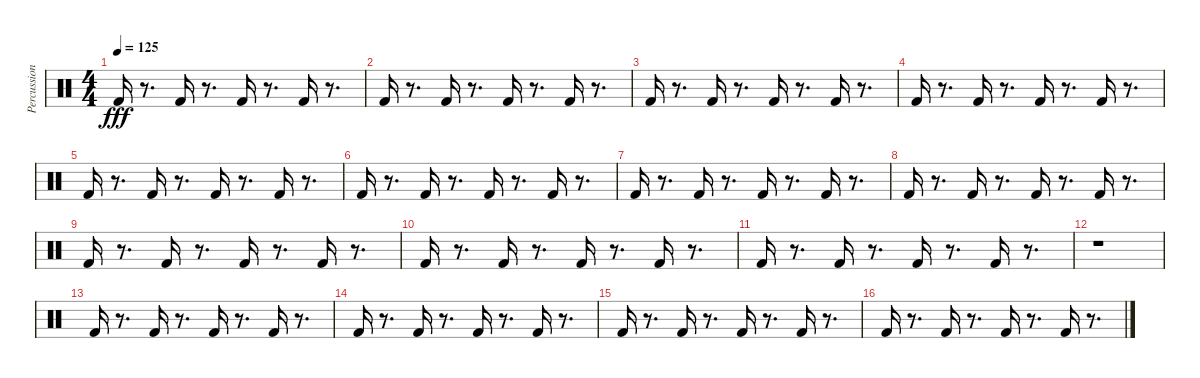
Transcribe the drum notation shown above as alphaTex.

\track ("Percussion" "Percussion") {instrument percussion}
\staff {score}
\articulation defaults
\ts (4 4)
\tempo 125
\clef neutral
\ks c "Kick (hit) 2".16{dy fff}
r.8{d} "Kick (hit) 2".16 r.8{d} "Kick (hit) 2".16 r.8{d} "Kick (hit) 2".16 r.8{d} |
"Kick (hit) 2".16 r.8{d} "Kick (hit) 2".16 r.8{d} "Kick (hit) 2".16 r.8{d} "Kick (hit) 2".16 r.8{d} |
"Kick (hit) 2".16 r.8{d} "Kick (hit) 2".16 r.8{d} "Kick (hit) 2".16 r.8{d} "Kick (hit) 2".16 r.8{d} |
"Kick (hit) 2".16 r.8{d} "Kick (hit) 2".16 r.8{d} "Kick (hit) 2".16 r.8{d} "Kick (hit) 2".16 r.8{d} |
"Kick (hit) 2".16 r.8{d} "Kick (hit) 2".16 r.8{d} "Kick (hit) 2".16 r.8{d} "Kick (hit) 2".16 r.8{d} |
"Kick (hit) 2".16 r.8{d} "Kick (hit) 2".16 r.8{d} "Kick (hit) 2".16 r.8{d} "Kick (hit) 2".16 r.8{d} |
"Kick (hit) 2".16 r.8{d} "Kick (hit) 2".16 r.8{d} "Kick (hit) 2".16 r.8{d} "Kick (hit) 2".16 r.8{d} |
"Kick (hit) 2".16 r.8{d} "Kick (hit) 2".16 r.8{d} "Kick (hit) 2".16 r.8{d} "Kick (hit) 2".16 r.8{d} |
"Kick (hit) 2".16 r.8{d} "Kick (hit) 2".16 r.8{d} "Kick (hit) 2".16 r.8{d} "Kick (hit) 2".16 r.8{d} |
"Kick (hit) 2".16 r.8{d} "Kick (hit) 2".16 r.8{d} "Kick (hit) 2".16 r.8{d} "Kick (hit) 2".16 r.8{d} |
"Kick (hit) 2".16 r.8{d} "Kick (hit) 2".16 r.8{d} "Kick (hit) 2".16 r.8{d} "Kick (hit) 2".16 r.8{d} |
r.1 |
"Kick (hit) 2".16 r.8{d} "Kick (hit) 2".16 r.8{d} "Kick (hit) 2".16 r.8{d} "Kick (hit) 2".16 r.8{d} |
"Kick (hit) 2".16 r.8{d} "Kick (hit) 2".16 r.8{d} "Kick (hit) 2".16 r.8{d} "Kick (hit) 2".16 r.8{d} |
"Kick (hit) 2".16 r.8{d} "Kick (hit) 2".16 r.8{d} "Kick (hit) 2".16 r.8{d} "Kick (hit) 2".16 r.8{d} |
"Kick (hit) 2".16 r.8{d} "Kick (hit) 2".16 r.8{d} "Kick (hit) 2".16 r.8{d} "Kick (hit) 2".16 r.8{d}
